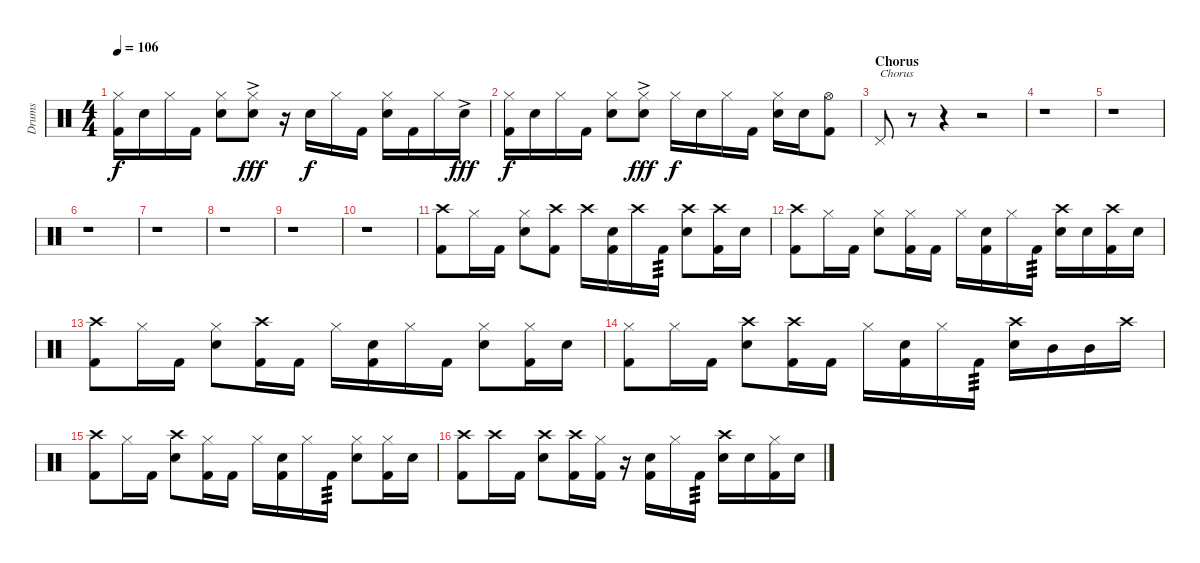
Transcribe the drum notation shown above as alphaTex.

\track ("Drums" "Drums") {instrument percussion}
\staff {score}
\articulation defaults
\ts (4 4)
\tempo 106
\clef neutral
\ks c
("Hi-Hat (closed)" "Kick (hit) 2").16{dy f} "Electric Snare (hit)".16 "Hi-Hat (closed)".16 "Kick (hit) 2".16 ("Hi-Hat (closed)" "Electric Snare (hit)").8 ("Hi-Hat (closed)" "Electric Snare (hit)"{ac}).8{dy fff} r.16 "Electric Snare (hit)".16{dy f} "Hi-Hat (closed)".16 "Kick (hit) 2".16 ("Hi-Hat (closed)" "Electric Snare (hit)").16 "Kick (hit) 2".16 "Hi-Hat (closed)".16 "Electric Snare (hit)"{ac}.16{dy fff} |
("Hi-Hat (closed)" "Kick (hit) 2").16{dy f} "Electric Snare (hit)".16 "Hi-Hat (closed)".16 "Kick (hit) 2".16 ("Hi-Hat (closed)" "Electric Snare (hit)").8 ("Hi-Hat (closed)" "Electric Snare (hit)"{ac}).8{dy fff} "Hi-Hat (closed)".16{dy f} "Electric Snare (hit)".16 "Hi-Hat (closed)".16 "Kick (hit) 2".16 ("Hi-Hat (closed)" "Electric Snare (hit)").16 "Electric Snare (hit)".16 ("Hi-Hat (open)" "Kick (hit) 2").8 |
\section ("" "Chorus")
"Pedal Hi-Hat (hit)".8{txt "Chorus"} r.8 r.4 r.2 |
r.1 |
r.1 |
r.1 |
r.1 |
r.1 |
r.1 |
r.1 |
("Crash high (hit)" "Kick (hit) 2").8 "Hi-Hat (closed)".16 "Kick (hit) 2".16 ("Hi-Hat (closed)" "Electric Snare (hit)").8 ("Crash high (hit)" "Kick (hit) 2").8 "Crash high (hit)".16 ("Electric Snare (hit)" "Kick (hit) 2").16 "Crash high (hit)".16 "Kick (hit) 2".16{tp 3} ("Crash high (hit)" "Electric Snare (hit)").8 ("Crash high (hit)" "Kick (hit) 2").16 "Electric Snare (hit)".16 |
("Crash high (hit)" "Kick (hit) 2").8 "Hi-Hat (closed)".16 "Kick (hit) 2".16 ("Hi-Hat (closed)" "Electric Snare (hit)").8 ("Hi-Hat (closed)" "Kick (hit) 2").16 "Kick (hit) 2".16 "Hi-Hat (closed)".16 ("Electric Snare (hit)" "Kick (hit) 2").16 "Hi-Hat (closed)".16 "Kick (hit) 2".16{tp 3} ("Crash high (hit)" "Electric Snare (hit)").16 "Electric Snare (hit)".16 ("Crash high (hit)" "Kick (hit) 2").16 "Electric Snare (hit)".16 |
("Crash high (hit)" "Kick (hit) 2").8 "Hi-Hat (closed)".16 "Kick (hit) 2".16 ("Hi-Hat (closed)" "Electric Snare (hit)").8 ("Crash high (hit)" "Kick (hit) 2").16 "Kick (hit) 2".16 "Hi-Hat (closed)".16 ("Electric Snare (hit)" "Kick (hit) 2").16 "Hi-Hat (closed)".16 "Kick (hit) 2".16 ("Hi-Hat (closed)" "Electric Snare (hit)").8 ("Hi-Hat (closed)" "Kick (hit) 2").16 "Electric Snare (hit)".16 |
("Hi-Hat (closed)" "Kick (hit) 2").8 "Hi-Hat (closed)".16 "Kick (hit) 2".16 ("Crash high (hit)" "Electric Snare (hit)").8 ("Crash high (hit)" "Kick (hit) 2").16 "Kick (hit) 2".16 "Hi-Hat (closed)".16 ("Electric Snare (hit)" "Kick (hit) 2").16 "Hi-Hat (closed)".16 "Kick (hit) 2".16{tp 3} ("Crash high (hit)" "Electric Snare (hit)").16 "Mid Tom (hit)".16 "Mid Tom (hit)".16 "Crash high (hit)".16 |
("Crash high (hit)" "Kick (hit) 2").8 "Hi-Hat (closed)".16 "Kick (hit) 2".16 ("Crash high (hit)" "Electric Snare (hit)").8 ("Hi-Hat (closed)" "Kick (hit) 2").16 "Kick (hit) 2".16 "Hi-Hat (closed)".16 ("Electric Snare (hit)" "Kick (hit) 2").16 "Hi-Hat (closed)".16 "Kick (hit) 2".16{tp 3} ("Hi-Hat (closed)" "Electric Snare (hit)").8 ("Hi-Hat (closed)" "Kick (hit) 2").16 "Electric Snare (hit)".16 |
("Crash high (hit)" "Kick (hit) 2").8 "Crash high (hit)".16 "Kick (hit) 2".16 ("Crash high (hit)" "Electric Snare (hit)").8 ("Crash high (hit)" "Kick (hit) 2").16 ("Hi-Hat (closed)" "Kick (hit) 2").16 r.16 ("Electric Snare (hit)" "Kick (hit) 2").16 "Hi-Hat (closed)".16 "Kick (hit) 2".16{tp 3} ("Crash high (hit)" "Electric Snare (hit)").16 "Electric Snare (hit)".16 ("Hi-Hat (closed)" "Kick (hit) 2").16 "Electric Snare (hit)".16
